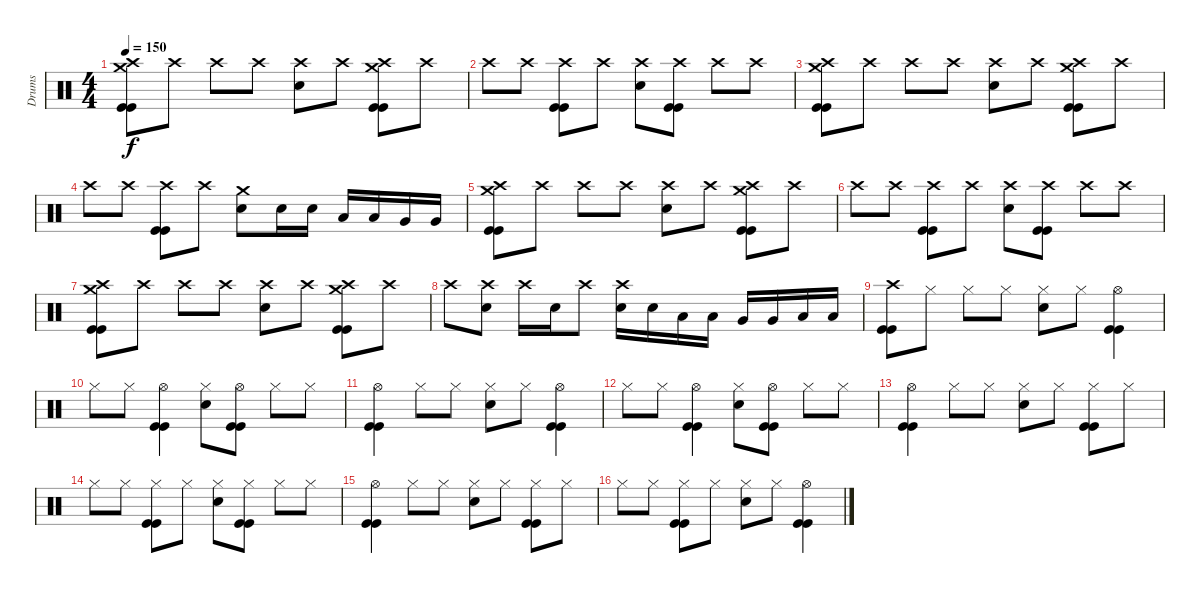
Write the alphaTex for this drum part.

\track ("Drums" "Drums") {instrument percussion}
\staff {score}
\articulation defaults
\ts (4 4)
\tempo 150
\clef neutral
\ks c
("Crash high (hit)" "Crash medium (hit)" "Kick (hit)" "Kick (hit)").8{dy f} "Crash high (hit)".8 "Crash high (hit)".8 "Crash high (hit)".8 ("Crash high (hit)" "Electric Snare (hit)").8 "Crash high (hit)".8 ("Crash high (hit)" "Crash medium (hit)" "Kick (hit)" "Kick (hit)").8 "Crash high (hit)".8 |
"Crash high (hit)".8 "Crash high (hit)".8 ("Crash high (hit)" "Kick (hit)" "Kick (hit)").8 "Crash high (hit)".8 ("Crash high (hit)" "Electric Snare (hit)").8 ("Crash high (hit)" "Kick (hit)" "Kick (hit)").8 "Crash high (hit)".8 "Crash high (hit)".8 |
("Crash high (hit)" "Crash medium (hit)" "Kick (hit)" "Kick (hit)").8 "Crash high (hit)".8 "Crash high (hit)".8 "Crash high (hit)".8 ("Crash high (hit)" "Electric Snare (hit)").8 "Crash high (hit)".8 ("Crash high (hit)" "Crash medium (hit)" "Kick (hit)" "Kick (hit)").8 "Crash high (hit)".8 |
"Crash high (hit)".8 "Crash high (hit)".8 ("Crash high (hit)" "Kick (hit)" "Kick (hit)").8 "Crash high (hit)".8 ("Crash medium (hit)" "Electric Snare (hit)").8 "Electric Snare (hit)".16 "Electric Snare (hit)".16 "Low Tom (hit)".16 "Low Tom (hit)".16 "Very Low Tom (hit)".16 "Very Low Tom (hit)".16 |
("Crash high (hit)" "Crash medium (hit)" "Kick (hit)" "Kick (hit)").8 "Crash high (hit)".8 "Crash high (hit)".8 "Crash high (hit)".8 ("Crash high (hit)" "Electric Snare (hit)").8 "Crash high (hit)".8 ("Crash high (hit)" "Crash medium (hit)" "Kick (hit)" "Kick (hit)").8 "Crash high (hit)".8 |
"Crash high (hit)".8 "Crash high (hit)".8 ("Crash high (hit)" "Kick (hit)" "Kick (hit)").8 "Crash high (hit)".8 ("Crash high (hit)" "Electric Snare (hit)").8 ("Crash high (hit)" "Kick (hit)" "Kick (hit)").8 "Crash high (hit)".8 "Crash high (hit)".8 |
("Crash high (hit)" "Crash medium (hit)" "Kick (hit)" "Kick (hit)").8 "Crash high (hit)".8 "Crash high (hit)".8 "Crash high (hit)".8 ("Crash high (hit)" "Electric Snare (hit)").8 "Crash high (hit)".8 ("Crash high (hit)" "Crash medium (hit)" "Kick (hit)" "Kick (hit)").8 "Crash high (hit)".8 |
"Crash high (hit)".8 ("Crash high (hit)" "Electric Snare (hit)").8 "Crash high (hit)".16 "Electric Snare (hit)".16 "Crash high (hit)".8 ("Crash high (hit)" "Electric Snare (hit)").16 "Electric Snare (hit)".16 "Low Tom (hit)".16 "Low Tom (hit)".16 "Very Low Tom (hit)".16 "Very Low Tom (hit)".16 "Low Floor Tom (hit)".16 "Low Floor Tom (hit)".16 |
("Crash high (hit)" "Kick (hit)" "Kick (hit)").8 "Hi-Hat (closed)".8 "Hi-Hat (closed)".8 "Hi-Hat (closed)".8 ("Hi-Hat (closed)" "Electric Snare (hit)").8 "Hi-Hat (closed)".8 ("Hi-Hat (open)" "Kick (hit)" "Kick (hit)").4 |
"Hi-Hat (closed)".8 "Hi-Hat (closed)".8 ("Hi-Hat (open)" "Kick (hit)" "Kick (hit)").4 ("Hi-Hat (closed)" "Electric Snare (hit)").8 ("Hi-Hat (open)" "Kick (hit)" "Kick (hit)").8 "Hi-Hat (closed)".8 "Hi-Hat (closed)".8 |
("Hi-Hat (open)" "Kick (hit)" "Kick (hit)").4 "Hi-Hat (closed)".8 "Hi-Hat (closed)".8 ("Hi-Hat (closed)" "Electric Snare (hit)").8 "Hi-Hat (closed)".8 ("Hi-Hat (open)" "Kick (hit)" "Kick (hit)").4 |
"Hi-Hat (closed)".8 "Hi-Hat (closed)".8 ("Hi-Hat (open)" "Kick (hit)" "Kick (hit)").4 ("Hi-Hat (closed)" "Electric Snare (hit)").8 ("Hi-Hat (open)" "Kick (hit)" "Kick (hit)").8 "Hi-Hat (closed)".8 "Hi-Hat (closed)".8 |
("Hi-Hat (open)" "Kick (hit)" "Kick (hit)").4 "Hi-Hat (closed)".8 "Hi-Hat (closed)".8 ("Hi-Hat (closed)" "Electric Snare (hit)").8 "Hi-Hat (closed)".8 ("Hi-Hat (closed)" "Kick (hit)" "Kick (hit)").8 "Hi-Hat (closed)".8 |
"Hi-Hat (closed)".8 "Hi-Hat (closed)".8 ("Hi-Hat (closed)" "Kick (hit)" "Kick (hit)").8 "Hi-Hat (closed)".8 ("Hi-Hat (closed)" "Electric Snare (hit)").8 ("Hi-Hat (closed)" "Kick (hit)" "Kick (hit)").8 "Hi-Hat (closed)".8 "Hi-Hat (closed)".8 |
("Hi-Hat (open)" "Kick (hit)" "Kick (hit)").4 "Hi-Hat (closed)".8 "Hi-Hat (closed)".8 ("Hi-Hat (closed)" "Electric Snare (hit)").8 "Hi-Hat (closed)".8 ("Hi-Hat (closed)" "Kick (hit)" "Kick (hit)").8 "Hi-Hat (closed)".8 |
"Hi-Hat (closed)".8 "Hi-Hat (closed)".8 ("Hi-Hat (closed)" "Kick (hit)" "Kick (hit)").8 "Hi-Hat (closed)".8 ("Hi-Hat (closed)" "Electric Snare (hit)").8 "Hi-Hat (closed)".8 ("Hi-Hat (open)" "Kick (hit)" "Kick (hit)").4
